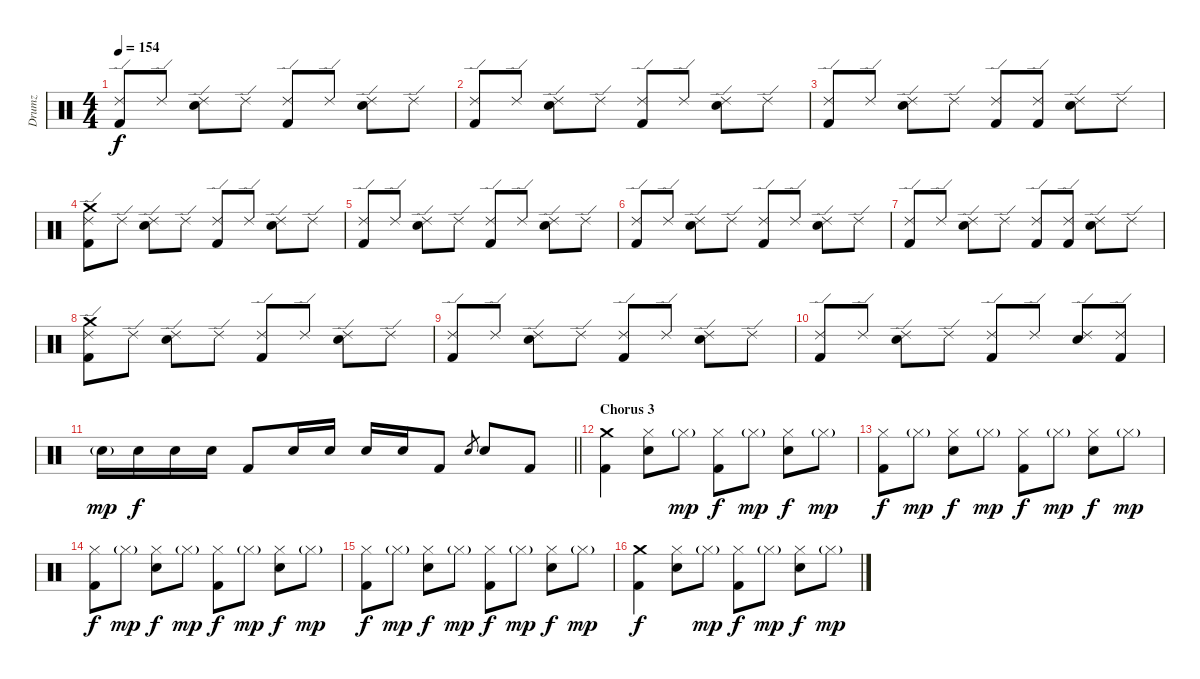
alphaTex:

\track ("Drumz" "Drumz") {instrument percussion}
\staff {score}
\articulation defaults
\ts (4 4)
\tempo 154
\clef neutral
\ks c
("Ride (edge) 2" "Kick (hit) 2").8{dy f} "Ride (edge) 2".8 ("Ride (edge) 2" "Electric Snare (hit)").8 "Ride (edge) 2".8 ("Ride (edge) 2" "Kick (hit) 2").8 "Ride (edge) 2".8 ("Ride (edge) 2" "Electric Snare (hit)").8 "Ride (edge) 2".8 |
("Ride (edge) 2" "Kick (hit) 2").8 "Ride (edge) 2".8 ("Ride (edge) 2" "Electric Snare (hit)").8 "Ride (edge) 2".8 ("Ride (edge) 2" "Kick (hit) 2").8 "Ride (edge) 2".8 ("Ride (edge) 2" "Electric Snare (hit)").8 "Ride (edge) 2".8 |
("Ride (edge) 2" "Kick (hit) 2").8 "Ride (edge) 2".8 ("Ride (edge) 2" "Electric Snare (hit)").8 "Ride (edge) 2".8 ("Ride (edge) 2" "Kick (hit) 2").8 ("Ride (edge) 2" "Kick (hit) 2").8 ("Ride (edge) 2" "Electric Snare (hit)").8 "Ride (edge) 2".8 |
("Crash medium (hit)" "Ride (edge) 2" "Kick (hit) 2").8 "Ride (edge) 2".8 ("Ride (edge) 2" "Electric Snare (hit)").8 "Ride (edge) 2".8 ("Ride (edge) 2" "Kick (hit) 2").8 "Ride (edge) 2".8 ("Ride (edge) 2" "Electric Snare (hit)").8 "Ride (edge) 2".8 |
("Ride (edge) 2" "Kick (hit) 2").8 "Ride (edge) 2".8 ("Ride (edge) 2" "Electric Snare (hit)").8 "Ride (edge) 2".8 ("Ride (edge) 2" "Kick (hit) 2").8 "Ride (edge) 2".8 ("Ride (edge) 2" "Electric Snare (hit)").8 "Ride (edge) 2".8 |
("Ride (edge) 2" "Kick (hit) 2").8 "Ride (edge) 2".8 ("Ride (edge) 2" "Electric Snare (hit)").8 "Ride (edge) 2".8 ("Ride (edge) 2" "Kick (hit) 2").8 "Ride (edge) 2".8 ("Ride (edge) 2" "Electric Snare (hit)").8 "Ride (edge) 2".8 |
("Ride (edge) 2" "Kick (hit) 2").8 "Ride (edge) 2".8 ("Ride (edge) 2" "Electric Snare (hit)").8 "Ride (edge) 2".8 ("Ride (edge) 2" "Kick (hit) 2").8 ("Ride (edge) 2" "Kick (hit) 2").8 ("Ride (edge) 2" "Electric Snare (hit)").8 "Ride (edge) 2".8 |
("Crash medium (hit)" "Ride (edge) 2" "Kick (hit) 2").8 "Ride (edge) 2".8 ("Ride (edge) 2" "Electric Snare (hit)").8 "Ride (edge) 2".8 ("Ride (edge) 2" "Kick (hit) 2").8 "Ride (edge) 2".8 ("Ride (edge) 2" "Electric Snare (hit)").8 "Ride (edge) 2".8 |
("Ride (edge) 2" "Kick (hit) 2").8 "Ride (edge) 2".8 ("Ride (edge) 2" "Electric Snare (hit)").8 "Ride (edge) 2".8 ("Ride (edge) 2" "Kick (hit) 2").8 "Ride (edge) 2".8 ("Ride (edge) 2" "Electric Snare (hit)").8 "Ride (edge) 2".8 |
("Ride (edge) 2" "Kick (hit) 2").8 "Ride (edge) 2".8 ("Ride (edge) 2" "Electric Snare (hit)").8 "Ride (edge) 2".8 ("Ride (edge) 2" "Kick (hit) 2").8 "Ride (edge) 2".8 ("Ride (edge) 2" "Electric Snare (hit)").8 ("Ride (edge) 2" "Kick (hit) 2").8 |
\barLineRight lightlight "Electric Snare (hit)"{g}.16{dy mp} "Electric Snare (hit)".16{dy f} "Electric Snare (hit)".16 "Electric Snare (hit)".16 "Kick (hit) 2".8 "Electric Snare (hit)".16 "Electric Snare (hit)".16 "Electric Snare (hit)".16 "Electric Snare (hit)".16 "Kick (hit) 2".8 "Electric Snare (hit)".8{gr} "Electric Snare (hit)".8 "Kick (hit) 2".8
|
\section ("" "Chorus 3")
("Crash medium (hit)" "Kick (hit) 2").4 ("Hi-Hat (closed)" "Electric Snare (hit)").8 "Hi-Hat (closed)"{g}.8{dy mp} ("Hi-Hat (closed)" "Kick (hit) 2").8{dy f} "Hi-Hat (closed)"{g}.8{dy mp} ("Hi-Hat (closed)" "Electric Snare (hit)").8{dy f} "Hi-Hat (closed)"{g}.8{dy mp} |
("Hi-Hat (closed)" "Kick (hit) 2").8{dy f} "Hi-Hat (closed)"{g}.8{dy mp} ("Hi-Hat (closed)" "Electric Snare (hit)").8{dy f} "Hi-Hat (closed)"{g}.8{dy mp} ("Hi-Hat (closed)" "Kick (hit) 2").8{dy f} "Hi-Hat (closed)"{g}.8{dy mp} ("Hi-Hat (closed)" "Electric Snare (hit)").8{dy f} "Hi-Hat (closed)"{g}.8{dy mp} |
("Hi-Hat (closed)" "Kick (hit) 2").8{dy f} "Hi-Hat (closed)"{g}.8{dy mp} ("Hi-Hat (closed)" "Electric Snare (hit)").8{dy f} "Hi-Hat (closed)"{g}.8{dy mp} ("Hi-Hat (closed)" "Kick (hit) 2").8{dy f} "Hi-Hat (closed)"{g}.8{dy mp} ("Hi-Hat (closed)" "Electric Snare (hit)").8{dy f} "Hi-Hat (closed)"{g}.8{dy mp} |
("Hi-Hat (closed)" "Kick (hit) 2").8{dy f} "Hi-Hat (closed)"{g}.8{dy mp} ("Hi-Hat (closed)" "Electric Snare (hit)").8{dy f} "Hi-Hat (closed)"{g}.8{dy mp} ("Hi-Hat (closed)" "Kick (hit) 2").8{dy f} "Hi-Hat (closed)"{g}.8{dy mp} ("Hi-Hat (closed)" "Electric Snare (hit)").8{dy f} "Hi-Hat (closed)"{g}.8{dy mp} |
("Crash medium (hit)" "Kick (hit) 2").4{dy f} ("Hi-Hat (closed)" "Electric Snare (hit)").8 "Hi-Hat (closed)"{g}.8{dy mp} ("Hi-Hat (closed)" "Kick (hit) 2").8{dy f} "Hi-Hat (closed)"{g}.8{dy mp} ("Hi-Hat (closed)" "Electric Snare (hit)").8{dy f} "Hi-Hat (closed)"{g}.8{dy mp}
